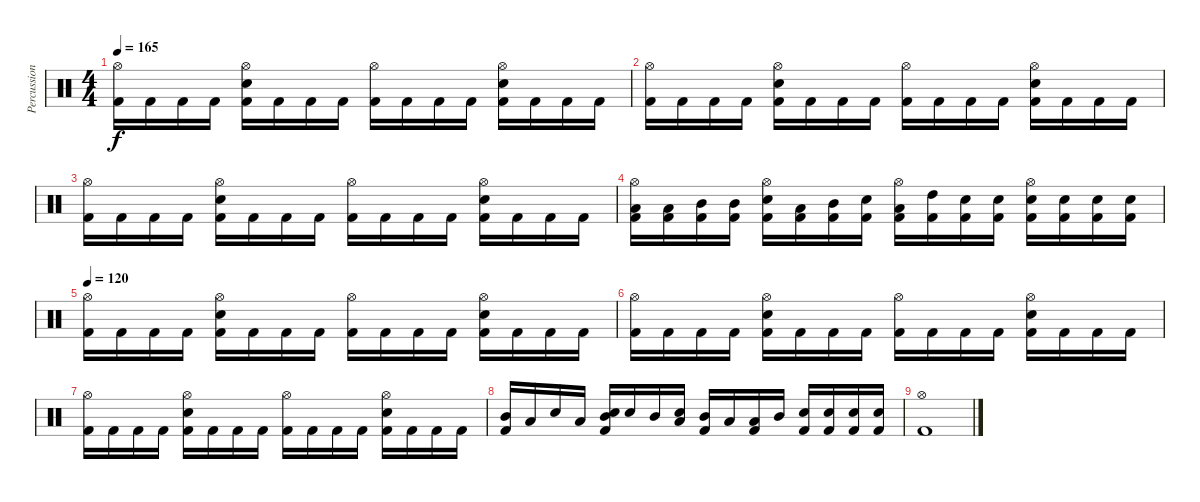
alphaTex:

\track ("Percussion" "Percussion") {instrument percussion}
\staff {score}
\articulation defaults
\ts (4 4)
\tempo 165
\clef neutral
\ks c
("Hi-Hat (open)" "Kick (hit) 2").16{dy f} "Kick (hit) 2".16 "Kick (hit) 2".16 "Kick (hit) 2".16 ("Hi-Hat (open)" "Snare (hit) 2" "Kick (hit) 2").16 "Kick (hit) 2".16 "Kick (hit) 2".16 "Kick (hit) 2".16 ("Hi-Hat (open)" "Kick (hit) 2").16 "Kick (hit) 2".16 "Kick (hit) 2".16 "Kick (hit) 2".16 ("Hi-Hat (open)" "Snare (hit) 2" "Kick (hit) 2").16 "Kick (hit) 2".16 "Kick (hit) 2".16 "Kick (hit) 2".16 |
("Hi-Hat (open)" "Kick (hit) 2").16 "Kick (hit) 2".16 "Kick (hit) 2".16 "Kick (hit) 2".16 ("Hi-Hat (open)" "Snare (hit) 2" "Kick (hit) 2").16 "Kick (hit) 2".16 "Kick (hit) 2".16 "Kick (hit) 2".16 ("Hi-Hat (open)" "Kick (hit) 2").16 "Kick (hit) 2".16 "Kick (hit) 2".16 "Kick (hit) 2".16 ("Hi-Hat (open)" "Snare (hit) 2" "Kick (hit) 2").16 "Kick (hit) 2".16 "Kick (hit) 2".16 "Kick (hit) 2".16 |
("Hi-Hat (open)" "Kick (hit) 2").16 "Kick (hit) 2".16 "Kick (hit) 2".16 "Kick (hit) 2".16 ("Hi-Hat (open)" "Snare (hit) 2" "Kick (hit) 2").16 "Kick (hit) 2".16 "Kick (hit) 2".16 "Kick (hit) 2".16 ("Hi-Hat (open)" "Kick (hit) 2").16 "Kick (hit) 2".16 "Kick (hit) 2".16 "Kick (hit) 2".16 ("Hi-Hat (open)" "Snare (hit) 2" "Kick (hit) 2").16 "Kick (hit) 2".16 "Kick (hit) 2".16 "Kick (hit) 2".16 |
("Hi-Hat (open)" "Low Tom (hit)" "Kick (hit) 2").16 ("Low Tom (hit)" "Kick (hit) 2").16 ("Mid Tom (hit)" "Kick (hit) 2").16 ("Mid Tom (hit)" "Kick (hit) 2").16 ("Hi-Hat (open)" "Snare (hit) 2" "Kick (hit) 2").16 ("Low Tom (hit)" "Kick (hit) 2").16 ("Mid Tom (hit)" "Kick (hit) 2").16 ("Snare (hit) 2" "Kick (hit) 2").16 ("Hi-Hat (open)" "Low Tom (hit)" "Kick (hit) 2").16 ("High Tom (hit)" "Kick (hit) 2").16 ("Snare (hit) 2" "Kick (hit) 2").16 ("Snare (hit) 2" "Kick (hit) 2").16 ("Hi-Hat (open)" "Snare (hit) 2" "Kick (hit) 2").16 ("Snare (hit) 2" "Kick (hit) 2").16 ("Snare (hit) 2" "Kick (hit) 2").16 ("Snare (hit) 2" "Kick (hit) 2").16 |
\tempo 120
("Hi-Hat (open)" "Kick (hit) 2").16 "Kick (hit) 2".16 "Kick (hit) 2".16 "Kick (hit) 2".16 ("Hi-Hat (open)" "Snare (hit) 2" "Kick (hit) 2").16 "Kick (hit) 2".16 "Kick (hit) 2".16 "Kick (hit) 2".16 ("Hi-Hat (open)" "Kick (hit) 2").16 "Kick (hit) 2".16 "Kick (hit) 2".16 "Kick (hit) 2".16 ("Hi-Hat (open)" "Snare (hit) 2" "Kick (hit) 2").16 "Kick (hit) 2".16 "Kick (hit) 2".16 "Kick (hit) 2".16 |
("Hi-Hat (open)" "Kick (hit) 2").16 "Kick (hit) 2".16 "Kick (hit) 2".16 "Kick (hit) 2".16 ("Hi-Hat (open)" "Snare (hit) 2" "Kick (hit) 2").16 "Kick (hit) 2".16 "Kick (hit) 2".16 "Kick (hit) 2".16 ("Hi-Hat (open)" "Kick (hit) 2").16 "Kick (hit) 2".16 "Kick (hit) 2".16 "Kick (hit) 2".16 ("Hi-Hat (open)" "Snare (hit) 2" "Kick (hit) 2").16 "Kick (hit) 2".16 "Kick (hit) 2".16 "Kick (hit) 2".16 |
("Hi-Hat (open)" "Kick (hit) 2").16 "Kick (hit) 2".16 "Kick (hit) 2".16 "Kick (hit) 2".16 ("Hi-Hat (open)" "Snare (hit) 2" "Kick (hit) 2").16 "Kick (hit) 2".16 "Kick (hit) 2".16 "Kick (hit) 2".16 ("Hi-Hat (open)" "Kick (hit) 2").16 "Kick (hit) 2".16 "Kick (hit) 2".16 "Kick (hit) 2".16 ("Hi-Hat (open)" "Snare (hit) 2" "Kick (hit) 2").16 "Kick (hit) 2".16 "Kick (hit) 2".16 "Kick (hit) 2".16 |
("Mid Tom (hit)" "Kick (hit) 2").16 "Low Tom (hit)".16 "Snare (hit) 2".16 "Low Tom (hit)".16 ("Mid Tom (hit)" "Snare (hit) 2" "Kick (hit) 2").16 "Snare (hit) 2".16 "Mid Tom (hit)".16 ("Low Tom (hit)" "Snare (hit) 2").16 ("Mid Tom (hit)" "Kick (hit) 2").16 "Low Tom (hit)".16 ("Low Tom (hit)" "Kick (hit) 2").16 "Mid Tom (hit)".16 ("Snare (hit) 2" "Kick (hit) 2").16 ("Snare (hit) 2" "Kick (hit) 2").16 ("Snare (hit) 2" "Kick (hit) 2").16 ("Snare (hit) 2" "Kick (hit) 2").16 |
("Hi-Hat (open)" "Kick (hit) 2").1
